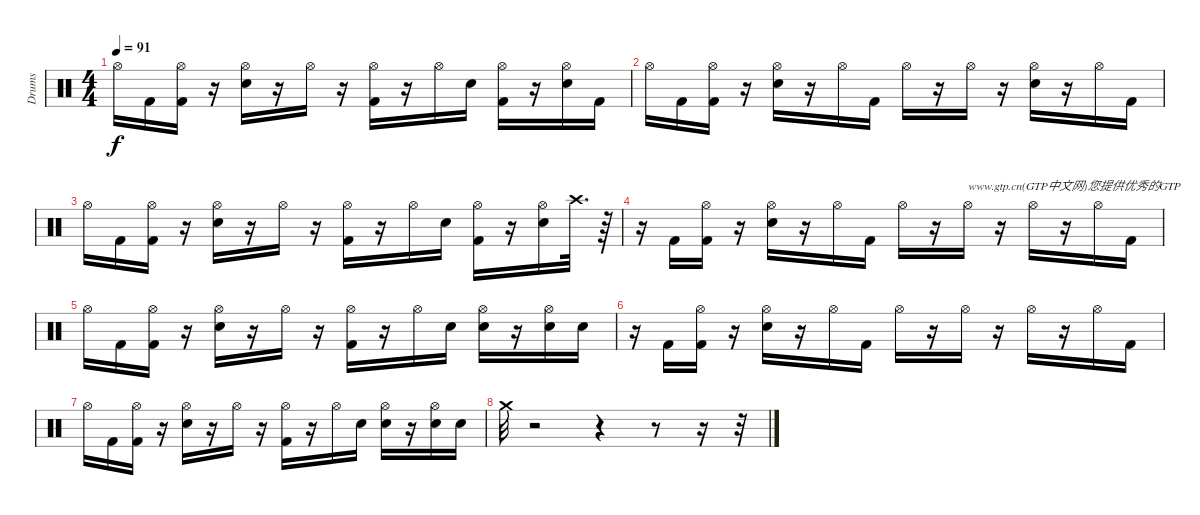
\track ("Drums" "Drums") {instrument percussion}
\staff {score}
\articulation defaults
\ts (4 4)
\tempo 91
\clef neutral
\ks c "Hi-Hat (open)".16{dy f} "Kick (hit) 2".16
("Hi-Hat (open)" "Kick (hit) 2").16 r.16 ("Hi-Hat (open)" "Snare (hit) 2").16 r.16 "Hi-Hat (open)".16 r.16 ("Kick (hit) 2" "Hi-Hat (open)").16 r.16 "Hi-Hat (open)".16 "Snare (hit) 2".16 ("Kick (hit) 2" "Hi-Hat (open)").16 r.16 ("Snare (hit) 2" "Hi-Hat (open)").16 "Kick (hit) 2".16 |
"Hi-Hat (open)".16 "Kick (hit) 2".16 ("Hi-Hat (open)" "Kick (hit) 2").16 r.16 ("Hi-Hat (open)" "Snare (hit) 2").16 r.16 "Hi-Hat (open)".16 "Kick (hit) 2".16 "Hi-Hat (open)".16 r.16 "Hi-Hat (open)".16 r.16 ("Snare (hit) 2" "Hi-Hat (open)").16 r.16 "Hi-Hat (open)".16 "Kick (hit) 2".16 |
"Hi-Hat (open)".16 "Kick (hit) 2".16 ("Hi-Hat (open)" "Kick (hit) 2").16 r.16 ("Hi-Hat (open)" "Snare (hit) 2").16 r.16 "Hi-Hat (open)".16 r.16 ("Kick (hit) 2" "Hi-Hat (open)").16 r.16 "Hi-Hat (open)".16 "Snare (hit) 2".16 ("Kick (hit) 2" "Hi-Hat (open)").16 r.16 ("Snare (hit) 2" "Hi-Hat (open)").16 "Crash high (hit)".32{d} r.64 |
r.16 "Kick (hit) 2".16 ("Hi-Hat (open)" "Kick (hit) 2").16 r.16 ("Hi-Hat (open)" "Snare (hit) 2").16 r.16 "Hi-Hat (open)".16 "Kick (hit) 2".16 "Hi-Hat (open)".16 r.16 "Hi-Hat (open)".16{txt "www.gtp.cn(GTP中文网)您提供优秀的GTP"} r.16 "Hi-Hat (open)".16 r.16 "Hi-Hat (open)".16 "Kick (hit) 2".16 |
"Hi-Hat (open)".16 "Kick (hit) 2".16 ("Hi-Hat (open)" "Kick (hit) 2").16 r.16 ("Hi-Hat (open)" "Snare (hit) 2").16 r.16 "Hi-Hat (open)".16 r.16 ("Kick (hit) 2" "Hi-Hat (open)").16 r.16 "Hi-Hat (open)".16 "Snare (hit) 2".16 ("Snare (hit) 2" "Hi-Hat (open)").16 r.16 ("Snare (hit) 2" "Hi-Hat (open)").16 "Snare (hit) 2".16 |
r.16 "Kick (hit) 2".16 ("Hi-Hat (open)" "Kick (hit) 2").16 r.16 ("Hi-Hat (open)" "Snare (hit) 2").16 r.16 "Hi-Hat (open)".16 "Kick (hit) 2".16 "Hi-Hat (open)".16 r.16 "Hi-Hat (open)".16 r.16 "Hi-Hat (open)".16 r.16 "Hi-Hat (open)".16 "Kick (hit) 2".16 |
"Hi-Hat (open)".16 "Kick (hit) 2".16 ("Hi-Hat (open)" "Kick (hit) 2").16 r.16 ("Hi-Hat (open)" "Snare (hit) 2").16 r.16 "Hi-Hat (open)".16 r.16 ("Kick (hit) 2" "Hi-Hat (open)").16 r.16 "Hi-Hat (open)".16 "Snare (hit) 2".16 ("Snare (hit) 2" "Hi-Hat (open)").16 r.16 ("Snare (hit) 2" "Hi-Hat (open)").16 "Snare (hit) 2".16 |
"Crash medium (hit)".32 r.2 r.4 r.8 r.16 r.32
